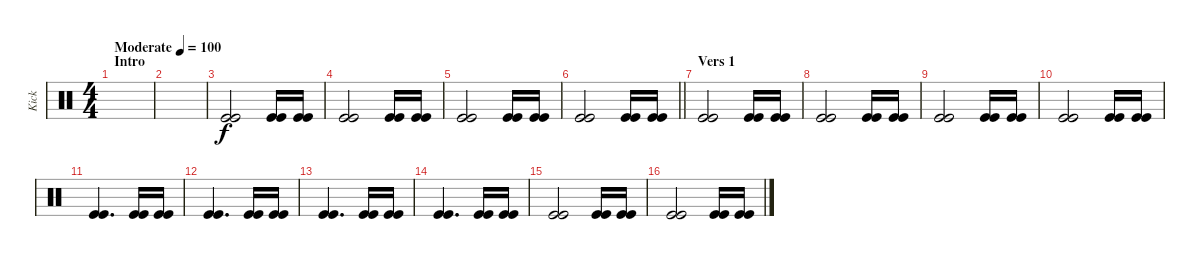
\track ("Kick" "Kick") {instrument percussion}
\staff {score}
\articulation defaults
\ts (4 4)
\section ("" "Intro")
\tempo (100 "Moderate")
\clef neutral
\ks c
|
|
("Kick (hit)" "Kick (hit)").2{beam merge} ("Kick (hit)" "Kick (hit)").16 ("Kick (hit)" "Kick (hit)").16 |
("Kick (hit)" "Kick (hit)").2{beam merge} ("Kick (hit)" "Kick (hit)").16 ("Kick (hit)" "Kick (hit)").16 |
("Kick (hit)" "Kick (hit)").2{beam merge} ("Kick (hit)" "Kick (hit)").16 ("Kick (hit)" "Kick (hit)").16 |
\barLineRight lightlight
("Kick (hit)" "Kick (hit)").2{beam merge} ("Kick (hit)" "Kick (hit)").16 ("Kick (hit)" "Kick (hit)").16 |
\section ("" "Vers 1")
("Kick (hit)" "Kick (hit)").2{beam merge} ("Kick (hit)" "Kick (hit)").16 ("Kick (hit)" "Kick (hit)").16 |
("Kick (hit)" "Kick (hit)").2{beam merge} ("Kick (hit)" "Kick (hit)").16 ("Kick (hit)" "Kick (hit)").16 |
("Kick (hit)" "Kick (hit)").2{beam merge} ("Kick (hit)" "Kick (hit)").16 ("Kick (hit)" "Kick (hit)").16 |
("Kick (hit)" "Kick (hit)").2{beam merge} ("Kick (hit)" "Kick (hit)").16 ("Kick (hit)" "Kick (hit)").16 |
("Kick (hit)" "Kick (hit)").4{d beam merge} ("Kick (hit)" "Kick (hit)").16 ("Kick (hit)" "Kick (hit)").16 |
("Kick (hit)" "Kick (hit)").4{d beam merge} ("Kick (hit)" "Kick (hit)").16 ("Kick (hit)" "Kick (hit)").16 |
("Kick (hit)" "Kick (hit)").4{d beam merge} ("Kick (hit)" "Kick (hit)").16 ("Kick (hit)" "Kick (hit)").16 |
("Kick (hit)" "Kick (hit)").4{d beam merge} ("Kick (hit)" "Kick (hit)").16 ("Kick (hit)" "Kick (hit)").16 |
("Kick (hit)" "Kick (hit)").2{beam merge} ("Kick (hit)" "Kick (hit)").16 ("Kick (hit)" "Kick (hit)").16 |
("Kick (hit)" "Kick (hit)").2{beam merge} ("Kick (hit)" "Kick (hit)").16 ("Kick (hit)" "Kick (hit)").16
